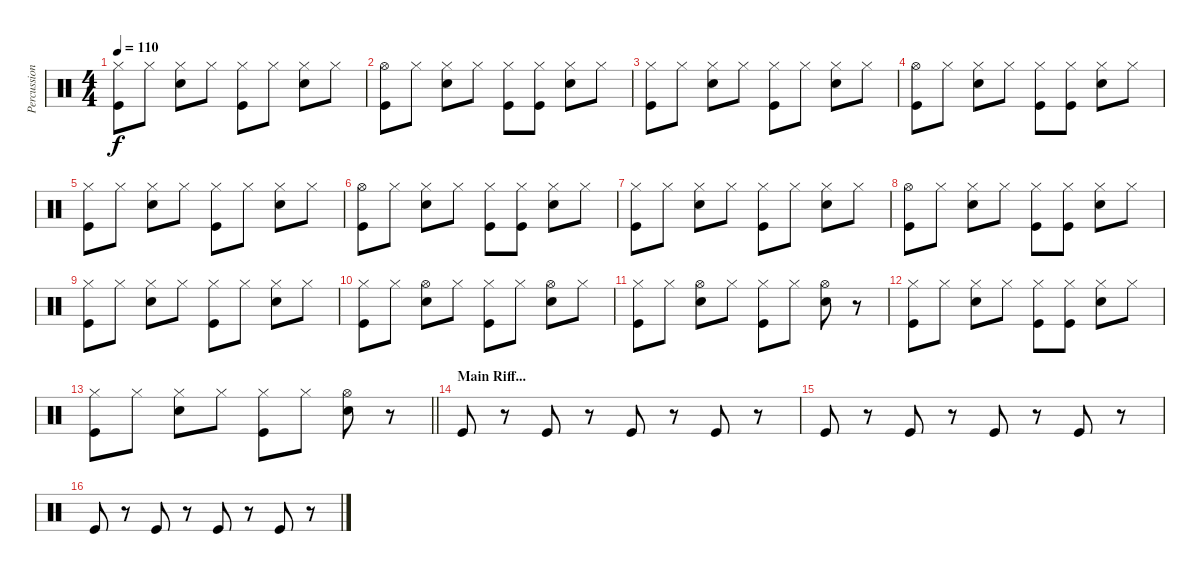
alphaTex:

\track ("Percussion" "Percussion") {instrument percussion}
\staff {score}
\articulation defaults
\ts (4 4)
\tempo 110
\clef neutral
\ks c
("Hi-Hat (closed)" "Kick (hit)").8{dy f} "Hi-Hat (closed)".8 ("Hi-Hat (closed)" "Snare (hit) 2").8 "Hi-Hat (closed)".8 ("Hi-Hat (closed)" "Kick (hit)").8 "Hi-Hat (closed)".8 ("Hi-Hat (closed)" "Snare (hit) 2").8 "Hi-Hat (closed)".8 |
("Hi-Hat (open)" "Kick (hit)").8 "Hi-Hat (closed)".8 ("Hi-Hat (closed)" "Snare (hit) 2").8 "Hi-Hat (closed)".8 ("Hi-Hat (closed)" "Kick (hit)").8 ("Hi-Hat (closed)" "Kick (hit)").8 ("Hi-Hat (closed)" "Snare (hit) 2").8 "Hi-Hat (closed)".8 |
("Hi-Hat (closed)" "Kick (hit)").8 "Hi-Hat (closed)".8 ("Hi-Hat (closed)" "Snare (hit) 2").8 "Hi-Hat (closed)".8 ("Hi-Hat (closed)" "Kick (hit)").8 "Hi-Hat (closed)".8 ("Hi-Hat (closed)" "Snare (hit) 2").8 "Hi-Hat (closed)".8 |
("Hi-Hat (open)" "Kick (hit)").8 "Hi-Hat (closed)".8 ("Hi-Hat (closed)" "Snare (hit) 2").8 "Hi-Hat (closed)".8 ("Hi-Hat (closed)" "Kick (hit)").8 ("Hi-Hat (closed)" "Kick (hit)").8 ("Hi-Hat (closed)" "Snare (hit) 2").8 "Hi-Hat (closed)".8 |
("Hi-Hat (closed)" "Kick (hit)").8 "Hi-Hat (closed)".8 ("Hi-Hat (closed)" "Snare (hit) 2").8 "Hi-Hat (closed)".8 ("Hi-Hat (closed)" "Kick (hit)").8 "Hi-Hat (closed)".8 ("Hi-Hat (closed)" "Snare (hit) 2").8 "Hi-Hat (closed)".8 |
("Hi-Hat (open)" "Kick (hit)").8 "Hi-Hat (closed)".8 ("Hi-Hat (closed)" "Snare (hit) 2").8 "Hi-Hat (closed)".8 ("Hi-Hat (closed)" "Kick (hit)").8 ("Hi-Hat (closed)" "Kick (hit)").8 ("Hi-Hat (closed)" "Snare (hit) 2").8 "Hi-Hat (closed)".8 |
("Hi-Hat (closed)" "Kick (hit)").8 "Hi-Hat (closed)".8 ("Hi-Hat (closed)" "Snare (hit) 2").8 "Hi-Hat (closed)".8 ("Hi-Hat (closed)" "Kick (hit)").8 "Hi-Hat (closed)".8 ("Hi-Hat (closed)" "Snare (hit) 2").8 "Hi-Hat (closed)".8 |
("Hi-Hat (open)" "Kick (hit)").8 "Hi-Hat (closed)".8 ("Hi-Hat (closed)" "Snare (hit) 2").8 "Hi-Hat (closed)".8 ("Hi-Hat (closed)" "Kick (hit)").8 ("Hi-Hat (closed)" "Kick (hit)").8 ("Hi-Hat (closed)" "Snare (hit) 2").8 "Hi-Hat (closed)".8 |
("Hi-Hat (closed)" "Kick (hit)").8 "Hi-Hat (closed)".8 ("Hi-Hat (closed)" "Snare (hit) 2").8 "Hi-Hat (closed)".8 ("Hi-Hat (closed)" "Kick (hit)").8 "Hi-Hat (closed)".8 ("Hi-Hat (closed)" "Snare (hit) 2").8 "Hi-Hat (closed)".8 |
("Hi-Hat (closed)" "Kick (hit)").8 "Hi-Hat (closed)".8 ("Hi-Hat (open)" "Snare (hit) 2").8 "Hi-Hat (closed)".8 ("Hi-Hat (closed)" "Kick (hit)").8 "Hi-Hat (closed)".8 ("Hi-Hat (open)" "Snare (hit) 2").8 "Hi-Hat (closed)".8 |
("Hi-Hat (closed)" "Kick (hit)").8 "Hi-Hat (closed)".8 ("Hi-Hat (open)" "Snare (hit) 2").8 "Hi-Hat (closed)".8 ("Hi-Hat (closed)" "Kick (hit)").8 "Hi-Hat (closed)".8 ("Hi-Hat (open)" "Snare (hit) 2").8 r.8 |
("Hi-Hat (closed)" "Kick (hit)").8 "Hi-Hat (closed)".8 ("Hi-Hat (closed)" "Snare (hit) 2").8 "Hi-Hat (closed)".8 ("Hi-Hat (closed)" "Kick (hit)").8 ("Hi-Hat (closed)" "Kick (hit)").8 ("Hi-Hat (closed)" "Snare (hit) 2").8 "Hi-Hat (closed)".8 |
\barLineRight lightlight
("Hi-Hat (closed)" "Kick (hit)").8 "Hi-Hat (closed)".8 ("Hi-Hat (closed)" "Snare (hit) 2").8 "Hi-Hat (closed)".8 ("Hi-Hat (closed)" "Kick (hit)").8 "Hi-Hat (closed)".8 ("Hi-Hat (open)" "Snare (hit) 2").8 r.8 |
\section ("" "Main Riff...")
"Kick (hit)".8 r.8 "Kick (hit)".8 r.8 "Kick (hit)".8 r.8 "Kick (hit)".8 r.8 |
"Kick (hit)".8 r.8 "Kick (hit)".8 r.8 "Kick (hit)".8 r.8 "Kick (hit)".8 r.8 |
"Kick (hit)".8 r.8 "Kick (hit)".8 r.8 "Kick (hit)".8 r.8 "Kick (hit)".8 r.8
